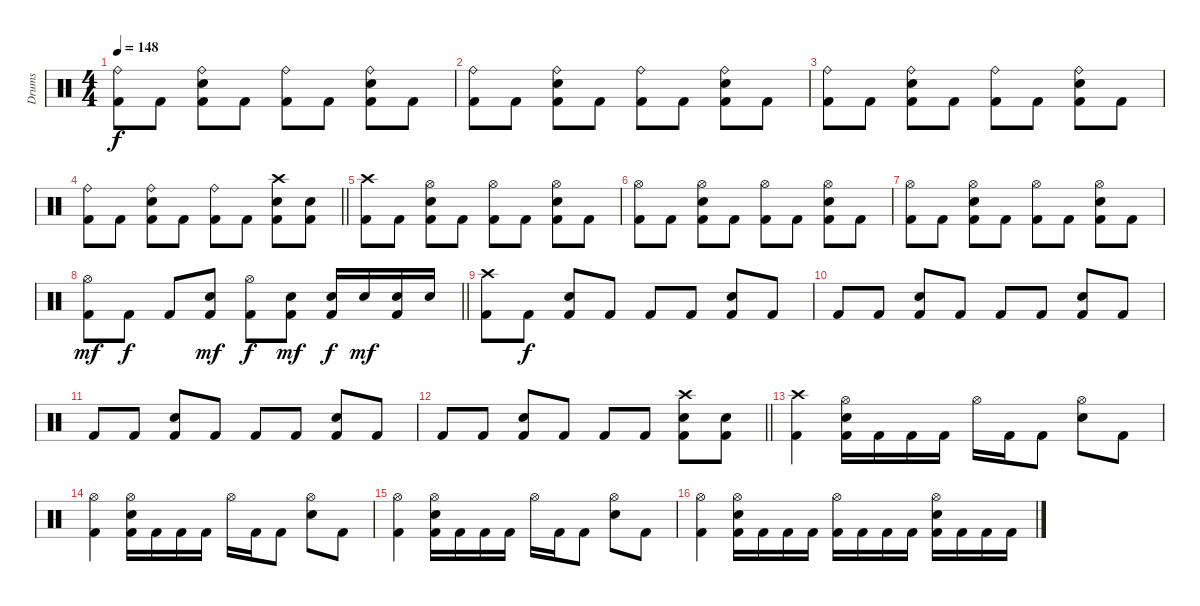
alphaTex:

\track ("Drums" "Drums") {instrument percussion}
\staff {score}
\articulation defaults
\ts (4 4)
\tempo 148
\clef neutral
\ks c
("Ride (bell)" "Kick (hit) 2").8{dy f} "Kick (hit) 2".8 ("Ride (bell)" "Electric Snare (hit)" "Kick (hit) 2").8 "Kick (hit) 2".8 ("Ride (bell)" "Kick (hit) 2").8 "Kick (hit) 2".8 ("Ride (bell)" "Electric Snare (hit)" "Kick (hit) 2").8 "Kick (hit) 2".8 |
("Ride (bell)" "Kick (hit) 2").8 "Kick (hit) 2".8 ("Ride (bell)" "Electric Snare (hit)" "Kick (hit) 2").8 "Kick (hit) 2".8 ("Ride (bell)" "Kick (hit) 2").8 "Kick (hit) 2".8 ("Ride (bell)" "Electric Snare (hit)" "Kick (hit) 2").8 "Kick (hit) 2".8 |
("Ride (bell)" "Kick (hit) 2").8 "Kick (hit) 2".8 ("Ride (bell)" "Electric Snare (hit)" "Kick (hit) 2").8 "Kick (hit) 2".8 ("Ride (bell)" "Kick (hit) 2").8 "Kick (hit) 2".8 ("Ride (bell)" "Electric Snare (hit)" "Kick (hit) 2").8 "Kick (hit) 2".8 |
\barLineRight lightlight
("Ride (bell)" "Kick (hit) 2").8 "Kick (hit) 2".8 ("Ride (bell)" "Electric Snare (hit)" "Kick (hit) 2").8 "Kick (hit) 2".8 ("Ride (bell)" "Kick (hit) 2").8 "Kick (hit) 2".8 ("Crash high (hit)" "Electric Snare (hit)" "Kick (hit) 2").8 ("Electric Snare (hit)" "Kick (hit) 2").8 |
("Crash high (hit)" "Kick (hit) 2").8 "Kick (hit) 2".8 ("Hi-Hat (open)" "Electric Snare (hit)" "Kick (hit) 2").8 "Kick (hit) 2".8 ("Hi-Hat (open)" "Kick (hit) 2").8 "Kick (hit) 2".8 ("Hi-Hat (open)" "Electric Snare (hit)" "Kick (hit) 2").8 "Kick (hit) 2".8 |
("Hi-Hat (open)" "Kick (hit) 2").8 "Kick (hit) 2".8 ("Hi-Hat (open)" "Electric Snare (hit)" "Kick (hit) 2").8 "Kick (hit) 2".8 ("Hi-Hat (open)" "Kick (hit) 2").8 "Kick (hit) 2".8 ("Hi-Hat (open)" "Electric Snare (hit)" "Kick (hit) 2").8 "Kick (hit) 2".8 |
("Hi-Hat (open)" "Kick (hit) 2").8 "Kick (hit) 2".8 ("Hi-Hat (open)" "Electric Snare (hit)" "Kick (hit) 2").8 "Kick (hit) 2".8 ("Hi-Hat (open)" "Kick (hit) 2").8 "Kick (hit) 2".8 ("Hi-Hat (open)" "Electric Snare (hit)" "Kick (hit) 2").8 "Kick (hit) 2".8 |
\barLineRight lightlight
("Hi-Hat (open)" "Kick (hit) 2").8{dy mf} "Kick (hit) 2".8{dy f} "Kick (hit) 2".8 ("Electric Snare (hit)" "Kick (hit) 2").8{dy mf} ("Hi-Hat (open)" "Kick (hit) 2").8{dy f} ("Electric Snare (hit)" "Kick (hit) 2").8{dy mf} ("Electric Snare (hit)" "Kick (hit) 2").16{dy f} "Electric Snare (hit)".16{dy mf} ("Electric Snare (hit)" "Kick (hit) 2").16 "Electric Snare (hit)".16 |
("Crash high (hit)" "Kick (hit) 2").8 "Kick (hit) 2".8{dy f} ("Electric Snare (hit)" "Kick (hit) 2").8 "Kick (hit) 2".8 "Kick (hit) 2".8 "Kick (hit) 2".8 ("Electric Snare (hit)" "Kick (hit) 2").8 "Kick (hit) 2".8 |
"Kick (hit) 2".8 "Kick (hit) 2".8 ("Electric Snare (hit)" "Kick (hit) 2").8 "Kick (hit) 2".8 "Kick (hit) 2".8 "Kick (hit) 2".8 ("Electric Snare (hit)" "Kick (hit) 2").8 "Kick (hit) 2".8 |
"Kick (hit) 2".8 "Kick (hit) 2".8 ("Electric Snare (hit)" "Kick (hit) 2").8 "Kick (hit) 2".8 "Kick (hit) 2".8 "Kick (hit) 2".8 ("Electric Snare (hit)" "Kick (hit) 2").8 "Kick (hit) 2".8 |
\barLineRight lightlight "Kick (hit) 2".8 "Kick (hit) 2".8
("Electric Snare (hit)" "Kick (hit) 2").8 "Kick (hit) 2".8 "Kick (hit) 2".8 "Kick (hit) 2".8 ("Crash high (hit)" "Electric Snare (hit)" "Kick (hit) 2").8 ("Electric Snare (hit)" "Kick (hit) 2").8 |
\section ("" "")
("Crash high (hit)" "Kick (hit) 2").4 ("Electric Snare (hit)" "Hi-Hat (open)" "Kick (hit) 2").16 "Kick (hit) 2".16 "Kick (hit) 2".16 "Kick (hit) 2".16 "Hi-Hat (open)".16 "Kick (hit) 2".16 "Kick (hit) 2".8 ("Electric Snare (hit)" "Hi-Hat (open)").8 "Kick (hit) 2".8 |
("Hi-Hat (open)" "Kick (hit) 2").4 ("Electric Snare (hit)" "Hi-Hat (open)" "Kick (hit) 2").16 "Kick (hit) 2".16 "Kick (hit) 2".16 "Kick (hit) 2".16 "Hi-Hat (open)".16 "Kick (hit) 2".16 "Kick (hit) 2".8 ("Electric Snare (hit)" "Hi-Hat (open)").8 "Kick (hit) 2".8 |
("Hi-Hat (open)" "Kick (hit) 2").4 ("Electric Snare (hit)" "Hi-Hat (open)" "Kick (hit) 2").16 "Kick (hit) 2".16 "Kick (hit) 2".16 "Kick (hit) 2".16 "Hi-Hat (open)".16 "Kick (hit) 2".16 "Kick (hit) 2".8 ("Electric Snare (hit)" "Hi-Hat (open)").8 "Kick (hit) 2".8 |
("Hi-Hat (open)" "Kick (hit) 2").4 ("Electric Snare (hit)" "Hi-Hat (open)" "Kick (hit) 2").16 "Kick (hit) 2".16 "Kick (hit) 2".16 "Kick (hit) 2".16 ("Hi-Hat (open)" "Kick (hit) 2").16 "Kick (hit) 2".16 "Kick (hit) 2".16 "Kick (hit) 2".16 ("Electric Snare (hit)" "Hi-Hat (open)" "Kick (hit) 2").16 "Kick (hit) 2".16 "Kick (hit) 2".16 "Kick (hit) 2".16
